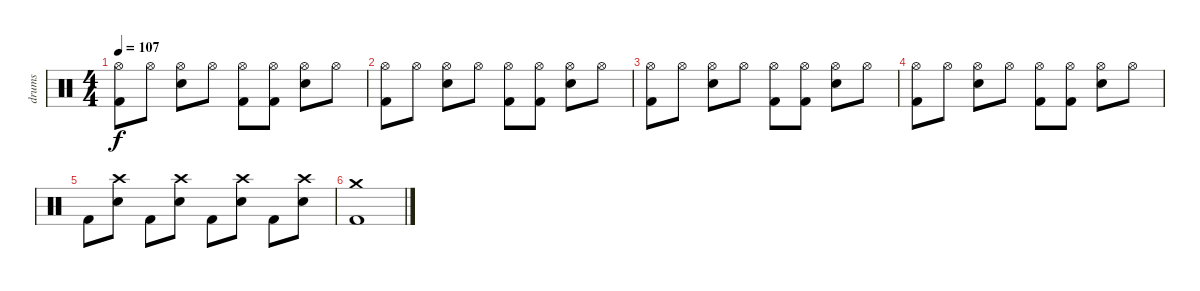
\track ("drums" "drums") {instrument percussion}
\staff {score}
\articulation defaults
\ts (4 4)
\tempo 107
\clef neutral
\ks c
("Hi-Hat (open)" "Kick (hit) 2").8{dy f} "Hi-Hat (open)".8 ("Hi-Hat (open)" "Electric Snare (hit)").8 "Hi-Hat (open)".8 ("Hi-Hat (open)" "Kick (hit) 2").8 ("Hi-Hat (open)" "Kick (hit) 2").8 ("Hi-Hat (open)" "Electric Snare (hit)").8 "Hi-Hat (open)".8 |
("Hi-Hat (open)" "Kick (hit) 2").8 "Hi-Hat (open)".8 ("Hi-Hat (open)" "Electric Snare (hit)").8 "Hi-Hat (open)".8 ("Hi-Hat (open)" "Kick (hit) 2").8 ("Hi-Hat (open)" "Kick (hit) 2").8 ("Hi-Hat (open)" "Electric Snare (hit)").8 "Hi-Hat (open)".8 |
("Hi-Hat (open)" "Kick (hit) 2").8 "Hi-Hat (open)".8 ("Hi-Hat (open)" "Electric Snare (hit)").8 "Hi-Hat (open)".8 ("Hi-Hat (open)" "Kick (hit) 2").8 ("Hi-Hat (open)" "Kick (hit) 2").8 ("Hi-Hat (open)" "Electric Snare (hit)").8 "Hi-Hat (open)".8 |
("Hi-Hat (open)" "Kick (hit) 2").8 "Hi-Hat (open)".8 ("Hi-Hat (open)" "Electric Snare (hit)").8 "Hi-Hat (open)".8 ("Hi-Hat (open)" "Kick (hit) 2").8 ("Hi-Hat (open)" "Kick (hit) 2").8 ("Hi-Hat (open)" "Electric Snare (hit)").8 "Hi-Hat (open)".8 |
"Kick (hit) 2".8 ("Crash high (hit)" "Electric Snare (hit)").8 "Kick (hit) 2".8 ("Crash high (hit)" "Electric Snare (hit)").8 "Kick (hit) 2".8 ("Crash high (hit)" "Electric Snare (hit)").8 "Kick (hit) 2".8 ("Crash high (hit)" "Electric Snare (hit)").8 |
("Crash medium (hit)" "Kick (hit) 2").1
